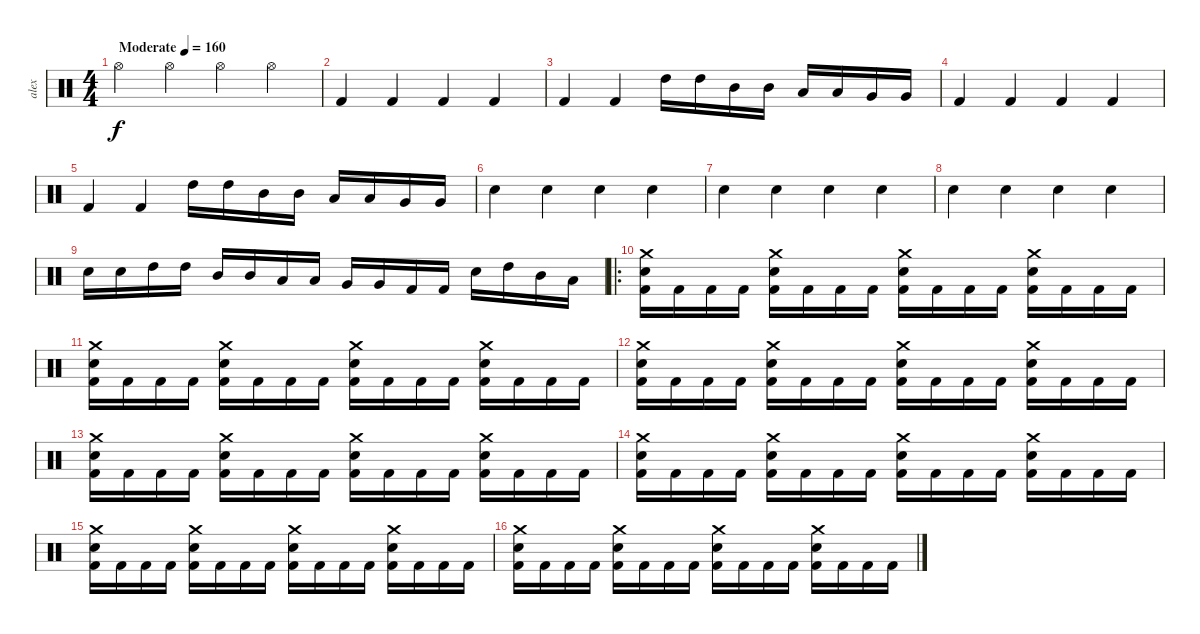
\track ("alex" "alex") {instrument percussion}
\staff {score}
\articulation defaults
\ts (4 4)
\tempo (160 "Moderate")
\clef neutral
\ks c "Hi-Hat (open)".4{dy f} "Hi-Hat (open)".4 "Hi-Hat (open)".4 "Hi-Hat (open)".4
|
"Kick (hit) 2".4 "Kick (hit) 2".4 "Kick (hit) 2".4 "Kick (hit) 2".4 |
"Kick (hit) 2".4 "Kick (hit) 2".4 "High Tom (hit)".16 "High Tom (hit)".16 "Mid Tom (hit)".16 "Mid Tom (hit)".16 "Low Tom (hit)".16 "Low Tom (hit)".16 "Very Low Tom (hit)".16 "Very Low Tom (hit)".16 |
"Kick (hit) 2".4 "Kick (hit) 2".4 "Kick (hit) 2".4 "Kick (hit) 2".4 |
"Kick (hit) 2".4 "Kick (hit) 2".4 "High Tom (hit)".16 "High Tom (hit)".16 "Mid Tom (hit)".16 "Mid Tom (hit)".16 "Low Tom (hit)".16 "Low Tom (hit)".16 "Very Low Tom (hit)".16 "Very Low Tom (hit)".16 |
"Electric Snare (hit)".4 "Electric Snare (hit)".4 "Electric Snare (hit)".4 "Electric Snare (hit)".4 |
"Electric Snare (hit)".4 "Electric Snare (hit)".4 "Electric Snare (hit)".4 "Electric Snare (hit)".4 |
"Electric Snare (hit)".4 "Electric Snare (hit)".4 "Electric Snare (hit)".4 "Electric Snare (hit)".4 |
"Electric Snare (hit)".16 "Electric Snare (hit)".16 "High Tom (hit)".16 "High Tom (hit)".16 "Mid Tom (hit)".16 "Mid Tom (hit)".16 "Low Tom (hit)".16 "Low Tom (hit)".16 "Very Low Tom (hit)".16 "Very Low Tom (hit)".16 "Kick (hit) 2".16 "Kick (hit) 2".16 "Snare (hit) 2".16 "High Tom (hit)".16 "Mid Tom (hit)".16 "Low Tom (hit)".16 |
\ro
("Electric Snare (hit)" "Kick (hit) 2" "Crash medium (hit)").16 "Kick (hit) 2".16 "Kick (hit) 2".16 "Kick (hit) 2".16 ("Electric Snare (hit)" "Kick (hit) 2" "Crash medium (hit)").16 "Kick (hit) 2".16 "Kick (hit) 2".16 "Kick (hit) 2".16 ("Electric Snare (hit)" "Kick (hit) 2" "Crash medium (hit)").16 "Kick (hit) 2".16 "Kick (hit) 2".16 "Kick (hit) 2".16 ("Electric Snare (hit)" "Kick (hit) 2" "Crash medium (hit)").16 "Kick (hit) 2".16 "Kick (hit) 2".16 "Kick (hit) 2".16 |
("Electric Snare (hit)" "Kick (hit) 2" "Crash medium (hit)").16 "Kick (hit) 2".16 "Kick (hit) 2".16 "Kick (hit) 2".16 ("Electric Snare (hit)" "Kick (hit) 2" "Crash medium (hit)").16 "Kick (hit) 2".16 "Kick (hit) 2".16 "Kick (hit) 2".16 ("Electric Snare (hit)" "Kick (hit) 2" "Crash medium (hit)").16 "Kick (hit) 2".16 "Kick (hit) 2".16 "Kick (hit) 2".16 ("Electric Snare (hit)" "Kick (hit) 2" "Crash medium (hit)").16 "Kick (hit) 2".16 "Kick (hit) 2".16 "Kick (hit) 2".16 |
("Electric Snare (hit)" "Kick (hit) 2" "Crash medium (hit)").16 "Kick (hit) 2".16 "Kick (hit) 2".16 "Kick (hit) 2".16 ("Electric Snare (hit)" "Kick (hit) 2" "Crash medium (hit)").16 "Kick (hit) 2".16 "Kick (hit) 2".16 "Kick (hit) 2".16 ("Electric Snare (hit)" "Kick (hit) 2" "Crash medium (hit)").16 "Kick (hit) 2".16 "Kick (hit) 2".16 "Kick (hit) 2".16 ("Electric Snare (hit)" "Kick (hit) 2" "Crash medium (hit)").16 "Kick (hit) 2".16 "Kick (hit) 2".16 "Kick (hit) 2".16 |
("Electric Snare (hit)" "Kick (hit) 2" "Crash medium (hit)").16 "Kick (hit) 2".16 "Kick (hit) 2".16 "Kick (hit) 2".16 ("Electric Snare (hit)" "Kick (hit) 2" "Crash medium (hit)").16 "Kick (hit) 2".16 "Kick (hit) 2".16 "Kick (hit) 2".16 ("Electric Snare (hit)" "Kick (hit) 2" "Crash medium (hit)").16 "Kick (hit) 2".16 "Kick (hit) 2".16 "Kick (hit) 2".16 ("Electric Snare (hit)" "Kick (hit) 2" "Crash medium (hit)").16 "Kick (hit) 2".16 "Kick (hit) 2".16 "Kick (hit) 2".16 |
("Electric Snare (hit)" "Kick (hit) 2" "Crash medium (hit)").16 "Kick (hit) 2".16 "Kick (hit) 2".16 "Kick (hit) 2".16 ("Electric Snare (hit)" "Kick (hit) 2" "Crash medium (hit)").16 "Kick (hit) 2".16 "Kick (hit) 2".16 "Kick (hit) 2".16 ("Electric Snare (hit)" "Kick (hit) 2" "Crash medium (hit)").16 "Kick (hit) 2".16 "Kick (hit) 2".16 "Kick (hit) 2".16 ("Electric Snare (hit)" "Kick (hit) 2" "Crash medium (hit)").16 "Kick (hit) 2".16 "Kick (hit) 2".16 "Kick (hit) 2".16 |
("Electric Snare (hit)" "Kick (hit) 2" "Crash medium (hit)").16 "Kick (hit) 2".16 "Kick (hit) 2".16 "Kick (hit) 2".16 ("Electric Snare (hit)" "Kick (hit) 2" "Crash medium (hit)").16 "Kick (hit) 2".16 "Kick (hit) 2".16 "Kick (hit) 2".16 ("Electric Snare (hit)" "Kick (hit) 2" "Crash medium (hit)").16 "Kick (hit) 2".16 "Kick (hit) 2".16 "Kick (hit) 2".16 ("Electric Snare (hit)" "Kick (hit) 2" "Crash medium (hit)").16 "Kick (hit) 2".16 "Kick (hit) 2".16 "Kick (hit) 2".16 |
("Electric Snare (hit)" "Kick (hit) 2" "Crash medium (hit)").16 "Kick (hit) 2".16 "Kick (hit) 2".16 "Kick (hit) 2".16 ("Electric Snare (hit)" "Kick (hit) 2" "Crash medium (hit)").16 "Kick (hit) 2".16 "Kick (hit) 2".16 "Kick (hit) 2".16 ("Electric Snare (hit)" "Kick (hit) 2" "Crash medium (hit)").16 "Kick (hit) 2".16 "Kick (hit) 2".16 "Kick (hit) 2".16 ("Electric Snare (hit)" "Kick (hit) 2" "Crash medium (hit)").16 "Kick (hit) 2".16 "Kick (hit) 2".16 "Kick (hit) 2".16
